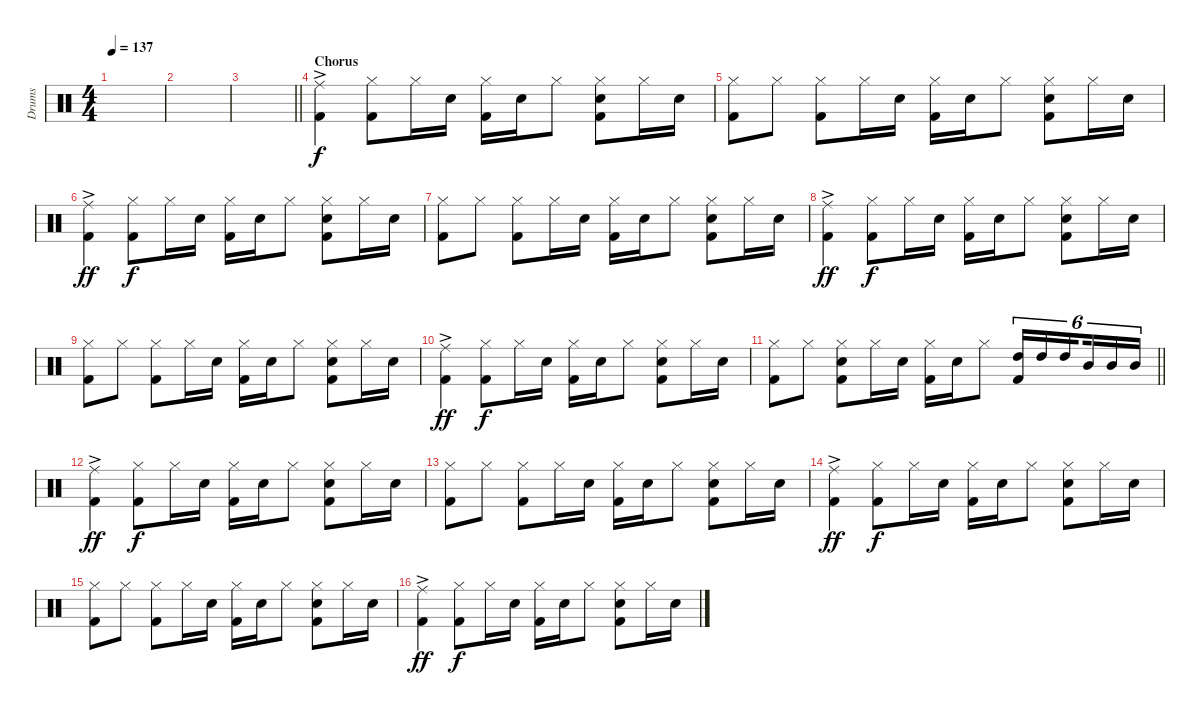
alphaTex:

\track ("Drums" "Drums") {instrument percussion}
\staff {score}
\articulation defaults
\ts (4 4)
\tempo 137
\clef neutral
\ks c
|
|
\barLineRight lightlight
|
\section ("" "Chorus")
("Ride (middle)"{ac} "Kick (hit) 2").4 ("Hi-Hat (closed)" "Kick (hit) 2").8{dy f} "Hi-Hat (closed)".16 "Electric Snare (hit)".16 ("Hi-Hat (closed)" "Kick (hit) 2").16 "Electric Snare (hit)".16 "Hi-Hat (closed)".8 ("Hi-Hat (closed)" "Electric Snare (hit)" "Kick (hit) 2").8 "Hi-Hat (closed)".16 "Electric Snare (hit)".16 |
("Hi-Hat (closed)" "Kick (hit) 2").8 "Hi-Hat (closed)".8 ("Hi-Hat (closed)" "Kick (hit) 2").8 "Hi-Hat (closed)".16 "Electric Snare (hit)".16 ("Hi-Hat (closed)" "Kick (hit) 2").16 "Electric Snare (hit)".16 "Hi-Hat (closed)".8 ("Hi-Hat (closed)" "Electric Snare (hit)" "Kick (hit) 2").8 "Hi-Hat (closed)".16 "Electric Snare (hit)".16 |
("Ride (middle)"{ac} "Kick (hit) 2").4{dy ff} ("Hi-Hat (closed)" "Kick (hit) 2").8{dy f} "Hi-Hat (closed)".16 "Electric Snare (hit)".16 ("Hi-Hat (closed)" "Kick (hit) 2").16 "Electric Snare (hit)".16 "Hi-Hat (closed)".8 ("Hi-Hat (closed)" "Electric Snare (hit)" "Kick (hit) 2").8 "Hi-Hat (closed)".16 "Electric Snare (hit)".16 |
("Hi-Hat (closed)" "Kick (hit) 2").8 "Hi-Hat (closed)".8 ("Hi-Hat (closed)" "Kick (hit) 2").8 "Hi-Hat (closed)".16 "Electric Snare (hit)".16 ("Hi-Hat (closed)" "Kick (hit) 2").16 "Electric Snare (hit)".16 "Hi-Hat (closed)".8 ("Hi-Hat (closed)" "Electric Snare (hit)" "Kick (hit) 2").8 "Hi-Hat (closed)".16 "Electric Snare (hit)".16 |
("Ride (middle)"{ac} "Kick (hit) 2").4{dy ff} ("Hi-Hat (closed)" "Kick (hit) 2").8{dy f} "Hi-Hat (closed)".16 "Electric Snare (hit)".16 ("Hi-Hat (closed)" "Kick (hit) 2").16 "Electric Snare (hit)".16 "Hi-Hat (closed)".8 ("Hi-Hat (closed)" "Electric Snare (hit)" "Kick (hit) 2").8 "Hi-Hat (closed)".16 "Electric Snare (hit)".16 |
("Hi-Hat (closed)" "Kick (hit) 2").8 "Hi-Hat (closed)".8 ("Hi-Hat (closed)" "Kick (hit) 2").8 "Hi-Hat (closed)".16 "Electric Snare (hit)".16 ("Hi-Hat (closed)" "Kick (hit) 2").16 "Electric Snare (hit)".16 "Hi-Hat (closed)".8 ("Hi-Hat (closed)" "Electric Snare (hit)" "Kick (hit) 2").8 "Hi-Hat (closed)".16 "Electric Snare (hit)".16 |
("Ride (middle)"{ac} "Kick (hit) 2").4{dy ff} ("Hi-Hat (closed)" "Kick (hit) 2").8{dy f} "Hi-Hat (closed)".16 "Electric Snare (hit)".16 ("Hi-Hat (closed)" "Kick (hit) 2").16 "Electric Snare (hit)".16 "Hi-Hat (closed)".8 ("Hi-Hat (closed)" "Electric Snare (hit)" "Kick (hit) 2").8 "Hi-Hat (closed)".16 "Electric Snare (hit)".16 |
\barLineRight lightlight
("Hi-Hat (closed)" "Kick (hit) 2").8 "Hi-Hat (closed)".8 ("Hi-Hat (closed)" "Electric Snare (hit)" "Kick (hit) 2").8 "Hi-Hat (closed)".16 "Electric Snare (hit)".16 ("Hi-Hat (closed)" "Kick (hit) 2").16 "Electric Snare (hit)".16 "Hi-Hat (closed)".8 ("High Tom (hit)" "Kick (hit) 2").16{tu (6 4)} "High Tom (hit)".16{tu (6 4)} "High Tom (hit)".16{tu (6 4) beam splitsecondary} "Mid Tom (hit)".16{tu (6 4)} "Mid Tom (hit)".16{tu (6 4)} "Mid Tom (hit)".16{tu (6 4)} |
\section ("" "")
("Ride (middle)"{ac} "Kick (hit) 2").4{dy ff} ("Hi-Hat (closed)" "Kick (hit) 2").8{dy f} "Hi-Hat (closed)".16 "Electric Snare (hit)".16 ("Hi-Hat (closed)" "Kick (hit) 2").16 "Electric Snare (hit)".16 "Hi-Hat (closed)".8 ("Hi-Hat (closed)" "Electric Snare (hit)" "Kick (hit) 2").8 "Hi-Hat (closed)".16 "Electric Snare (hit)".16 |
("Hi-Hat (closed)" "Kick (hit) 2").8 "Hi-Hat (closed)".8 ("Hi-Hat (closed)" "Kick (hit) 2").8 "Hi-Hat (closed)".16 "Electric Snare (hit)".16 ("Hi-Hat (closed)" "Kick (hit) 2").16 "Electric Snare (hit)".16 "Hi-Hat (closed)".8 ("Hi-Hat (closed)" "Electric Snare (hit)" "Kick (hit) 2").8 "Hi-Hat (closed)".16 "Electric Snare (hit)".16 |
("Ride (middle)"{ac} "Kick (hit) 2").4{dy ff} ("Hi-Hat (closed)" "Kick (hit) 2").8{dy f} "Hi-Hat (closed)".16 "Electric Snare (hit)".16 ("Hi-Hat (closed)" "Kick (hit) 2").16 "Electric Snare (hit)".16 "Hi-Hat (closed)".8 ("Hi-Hat (closed)" "Electric Snare (hit)" "Kick (hit) 2").8 "Hi-Hat (closed)".16 "Electric Snare (hit)".16 |
("Hi-Hat (closed)" "Kick (hit) 2").8 "Hi-Hat (closed)".8 ("Hi-Hat (closed)" "Kick (hit) 2").8 "Hi-Hat (closed)".16 "Electric Snare (hit)".16 ("Hi-Hat (closed)" "Kick (hit) 2").16 "Electric Snare (hit)".16 "Hi-Hat (closed)".8 ("Hi-Hat (closed)" "Electric Snare (hit)" "Kick (hit) 2").8 "Hi-Hat (closed)".16 "Electric Snare (hit)".16 |
("Ride (middle)"{ac} "Kick (hit) 2").4{dy ff} ("Hi-Hat (closed)" "Kick (hit) 2").8{dy f} "Hi-Hat (closed)".16 "Electric Snare (hit)".16 ("Hi-Hat (closed)" "Kick (hit) 2").16 "Electric Snare (hit)".16 "Hi-Hat (closed)".8 ("Hi-Hat (closed)" "Electric Snare (hit)" "Kick (hit) 2").8 "Hi-Hat (closed)".16 "Electric Snare (hit)".16
